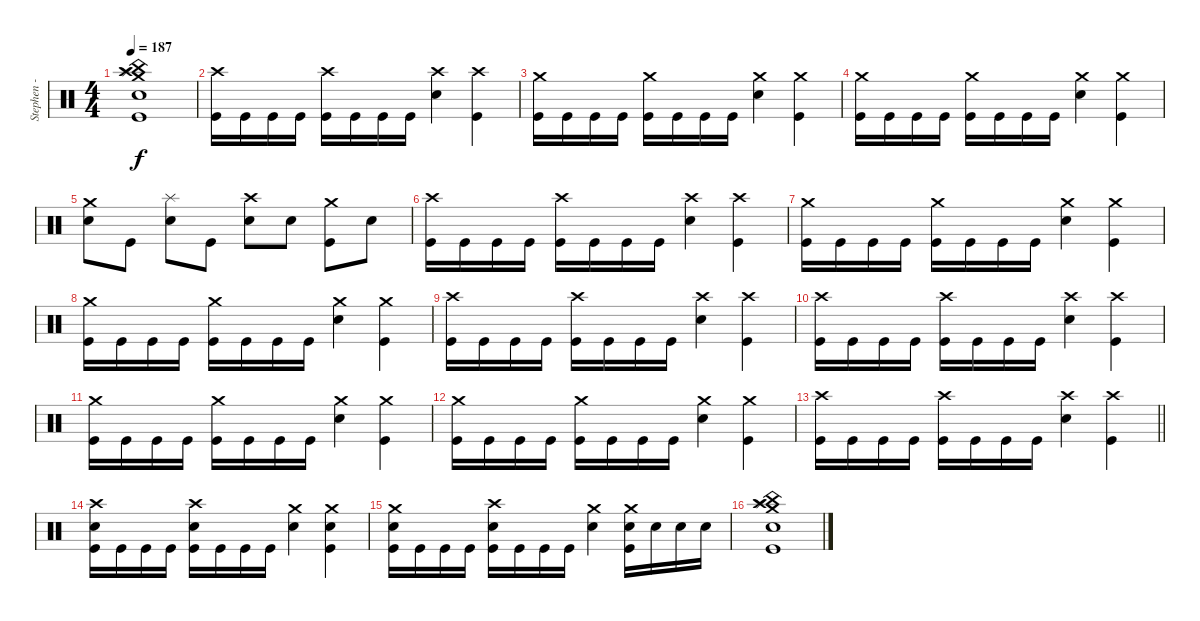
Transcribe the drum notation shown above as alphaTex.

\track ("Stephen - Drums" "Stephen - ") {instrument percussion}
\staff {score}
\articulation defaults
\ts (4 4)
\tempo 187
\clef neutral
\ks c
("China (hit)" "Crash medium (hit)" "Crash high (hit)" "Splash (hit)" "Snare (hit) 2" "Kick (hit)").1{dy f} |
("Crash high (hit)" "Kick (hit)").16 "Kick (hit)".16 "Kick (hit)".16 "Kick (hit)".16 ("Crash high (hit)" "Kick (hit)").16 "Kick (hit)".16 "Kick (hit)".16 "Kick (hit)".16 ("Crash high (hit)" "Snare (hit) 2").4 ("Crash high (hit)" "Kick (hit)").4 |
("Crash medium (hit)" "Kick (hit)").16 "Kick (hit)".16 "Kick (hit)".16 "Kick (hit)".16 ("Crash medium (hit)" "Kick (hit)").16 "Kick (hit)".16 "Kick (hit)".16 "Kick (hit)".16 ("Crash medium (hit)" "Snare (hit) 2").4 ("Crash medium (hit)" "Kick (hit)").4 |
("Crash medium (hit)" "Kick (hit)").16 "Kick (hit)".16 "Kick (hit)".16 "Kick (hit)".16 ("Crash medium (hit)" "Kick (hit)").16 "Kick (hit)".16 "Kick (hit)".16 "Kick (hit)".16 ("Crash medium (hit)" "Snare (hit) 2").4 ("Crash medium (hit)" "Kick (hit)").4 |
("Crash medium (hit)" "Snare (hit) 2").8 "Kick (hit)".8 ("Splash (hit)" "Snare (hit) 2").8 "Kick (hit)".8 ("Crash high (hit)" "Snare (hit) 2").8 "Snare (hit) 2".8 ("Crash medium (hit)" "Kick (hit)").8 "Snare (hit) 2".8 |
("Crash high (hit)" "Kick (hit)").16 "Kick (hit)".16 "Kick (hit)".16 "Kick (hit)".16 ("Crash high (hit)" "Kick (hit)").16 "Kick (hit)".16 "Kick (hit)".16 "Kick (hit)".16 ("Crash high (hit)" "Snare (hit) 2").4 ("Crash high (hit)" "Kick (hit)").4 |
("Crash medium (hit)" "Kick (hit)").16 "Kick (hit)".16 "Kick (hit)".16 "Kick (hit)".16 ("Crash medium (hit)" "Kick (hit)").16 "Kick (hit)".16 "Kick (hit)".16 "Kick (hit)".16 ("Crash medium (hit)" "Snare (hit) 2").4 ("Crash medium (hit)" "Kick (hit)").4 |
("Crash medium (hit)" "Kick (hit)").16 "Kick (hit)".16 "Kick (hit)".16 "Kick (hit)".16 ("Crash medium (hit)" "Kick (hit)").16 "Kick (hit)".16 "Kick (hit)".16 "Kick (hit)".16 ("Crash medium (hit)" "Snare (hit) 2").4 ("Crash medium (hit)" "Kick (hit)").4 |
("Crash high (hit)" "Kick (hit)").16 "Kick (hit)".16 "Kick (hit)".16 "Kick (hit)".16 ("Crash high (hit)" "Kick (hit)").16 "Kick (hit)".16 "Kick (hit)".16 "Kick (hit)".16 ("Crash high (hit)" "Snare (hit) 2").4 ("Crash high (hit)" "Kick (hit)").4 |
("Crash high (hit)" "Kick (hit)").16 "Kick (hit)".16 "Kick (hit)".16 "Kick (hit)".16 ("Crash high (hit)" "Kick (hit)").16 "Kick (hit)".16 "Kick (hit)".16 "Kick (hit)".16 ("Crash high (hit)" "Snare (hit) 2").4 ("Crash high (hit)" "Kick (hit)").4 |
("Crash medium (hit)" "Kick (hit)").16 "Kick (hit)".16 "Kick (hit)".16 "Kick (hit)".16 ("Crash medium (hit)" "Kick (hit)").16 "Kick (hit)".16 "Kick (hit)".16 "Kick (hit)".16 ("Crash medium (hit)" "Snare (hit) 2").4 ("Crash medium (hit)" "Kick (hit)").4 |
("Crash medium (hit)" "Kick (hit)").16 "Kick (hit)".16 "Kick (hit)".16 "Kick (hit)".16 ("Crash medium (hit)" "Kick (hit)").16 "Kick (hit)".16 "Kick (hit)".16 "Kick (hit)".16 ("Crash medium (hit)" "Snare (hit) 2").4 ("Crash medium (hit)" "Kick (hit)").4 |
\barLineRight lightlight
("Crash high (hit)" "Kick (hit)").16 "Kick (hit)".16 "Kick (hit)".16 "Kick (hit)".16 ("Crash high (hit)" "Kick (hit)").16 "Kick (hit)".16 "Kick (hit)".16 "Kick (hit)".16 ("Crash high (hit)" "Snare (hit) 2").4 ("Crash high (hit)" "Kick (hit)").4 |
("Crash high (hit)" "Snare (hit) 2" "Kick (hit)").16 "Kick (hit)".16 "Kick (hit)".16 "Kick (hit)".16 ("Crash high (hit)" "Snare (hit) 2" "Kick (hit)").16 "Kick (hit)".16 "Kick (hit)".16 "Kick (hit)".16 ("Crash medium (hit)" "Snare (hit) 2").4 ("Crash medium (hit)" "Snare (hit) 2" "Kick (hit)").4 |
("Crash medium (hit)" "Snare (hit) 2" "Kick (hit)").16 "Kick (hit)".16 "Kick (hit)".16 "Kick (hit)".16 ("Crash high (hit)" "Snare (hit) 2" "Kick (hit)").16 "Kick (hit)".16 "Kick (hit)".16 "Kick (hit)".16 ("Crash medium (hit)" "Snare (hit) 2").4 ("Crash medium (hit)" "Snare (hit) 2" "Kick (hit)").16 "Snare (hit) 2".16 "Snare (hit) 2".16 "Snare (hit) 2".16 |
("China (hit)" "Crash medium (hit)" "Crash high (hit)" "Splash (hit)" "Snare (hit) 2" "Kick (hit)").1
